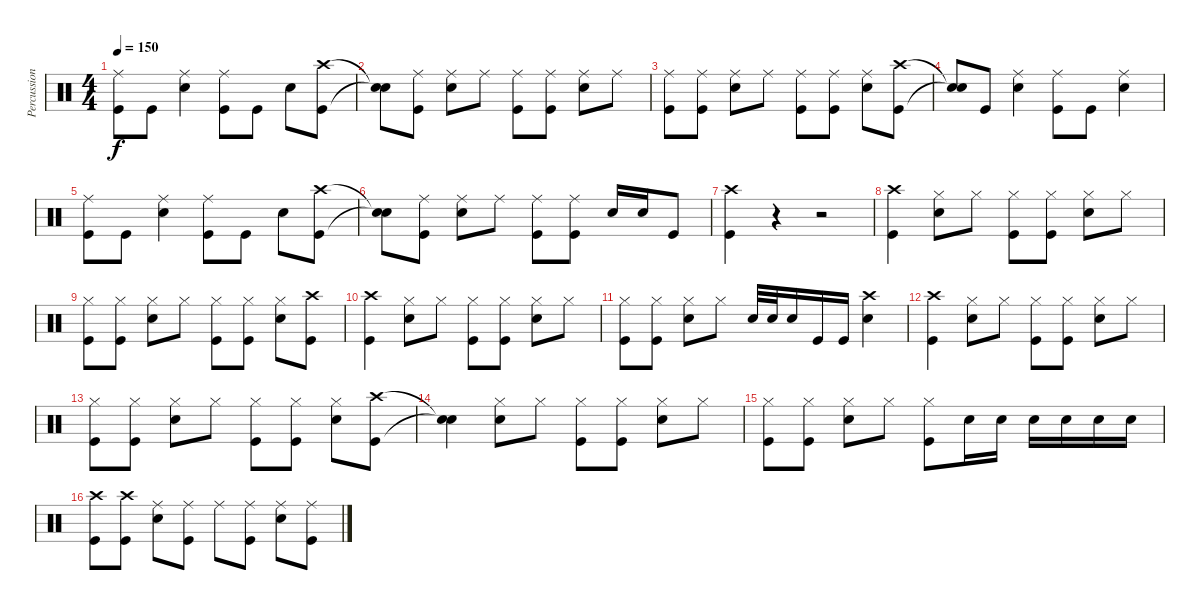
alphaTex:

\track ("Percussion" "Percussion") {instrument percussion}
\staff {score}
\articulation defaults
\ts (4 4)
\tempo 150
\clef neutral
\ks c
("Ride (middle)" "Kick (hit)").8{dy f} "Kick (hit)".8 ("Ride (middle)" "Electric Snare (hit)").4 ("Ride (middle)" "Kick (hit)").8 "Kick (hit)".8 "Electric Snare (hit)".8 ("Crash high (hit)" "Kick (hit)").8 |
("Snare (hit)"{t} "Snare (hit)"{t}).8 ("Ride (middle)" "Kick (hit)").8 ("Ride (middle)" "Electric Snare (hit)").8 "Ride (middle)".8 ("Ride (middle)" "Kick (hit)").8 ("Ride (middle)" "Kick (hit)").8 ("Ride (middle)" "Electric Snare (hit)").8 "Ride (middle)".8 |
("Ride (middle)" "Kick (hit)").8 ("Ride (middle)" "Kick (hit)").8 ("Ride (middle)" "Electric Snare (hit)").8 "Ride (middle)".8 ("Ride (middle)" "Kick (hit)").8 ("Ride (middle)" "Kick (hit)").8 ("Ride (middle)" "Electric Snare (hit)").8 ("Crash high (hit)" "Kick (hit)").8 |
("Snare (hit)"{t} "Snare (hit)"{t}).8 "Kick (hit)".8 ("Ride (middle)" "Electric Snare (hit)").4 ("Ride (middle)" "Kick (hit)").8 "Kick (hit)".8 ("Ride (middle)" "Electric Snare (hit)").4 |
("Ride (middle)" "Kick (hit)").8 "Kick (hit)".8 ("Ride (middle)" "Electric Snare (hit)").4 ("Ride (middle)" "Kick (hit)").8 "Kick (hit)".8 "Electric Snare (hit)".8 ("Crash high (hit)" "Kick (hit)").8 |
("Snare (hit)"{t} "Snare (hit)"{t}).8 ("Ride (middle)" "Kick (hit)").8 ("Ride (middle)" "Electric Snare (hit)").8 "Ride (middle)".8 ("Ride (middle)" "Kick (hit)").8 ("Ride (middle)" "Kick (hit)").8 "Electric Snare (hit)".16 "Electric Snare (hit)".16 "Kick (hit)".8 |
("Crash high (hit)" "Kick (hit)").4 r.4 r.2 |
("Crash high (hit)" "Kick (hit)").4 ("Hi-Hat (closed)" "Electric Snare (hit)").8 "Hi-Hat (closed)".8 ("Hi-Hat (closed)" "Kick (hit)").8 ("Hi-Hat (closed)" "Kick (hit)").8 ("Hi-Hat (closed)" "Electric Snare (hit)").8 "Hi-Hat (closed)".8 |
("Hi-Hat (closed)" "Kick (hit)").8 ("Hi-Hat (closed)" "Kick (hit)").8 ("Hi-Hat (closed)" "Electric Snare (hit)").8 "Hi-Hat (closed)".8 ("Hi-Hat (closed)" "Kick (hit)").8 ("Hi-Hat (closed)" "Kick (hit)").8 ("Hi-Hat (closed)" "Electric Snare (hit)").8 ("Crash high (hit)" "Kick (hit)").8 |
("Crash high (hit)" "Kick (hit)").4 ("Hi-Hat (closed)" "Electric Snare (hit)").8 "Hi-Hat (closed)".8 ("Hi-Hat (closed)" "Kick (hit)").8 ("Hi-Hat (closed)" "Kick (hit)").8 ("Hi-Hat (closed)" "Electric Snare (hit)").8 "Hi-Hat (closed)".8 |
("Hi-Hat (closed)" "Kick (hit)").8 ("Hi-Hat (closed)" "Kick (hit)").8 ("Hi-Hat (closed)" "Electric Snare (hit)").8 "Hi-Hat (closed)".8 "Electric Snare (hit)".32 "Electric Snare (hit)".32 "Electric Snare (hit)".16 "Kick (hit)".16 "Kick (hit)".16 ("Crash high (hit)" "Electric Snare (hit)").4 |
("Crash high (hit)" "Kick (hit)").4 ("Hi-Hat (closed)" "Electric Snare (hit)").8 "Hi-Hat (closed)".8 ("Hi-Hat (closed)" "Kick (hit)").8 ("Hi-Hat (closed)" "Kick (hit)").8 ("Hi-Hat (closed)" "Electric Snare (hit)").8 "Hi-Hat (closed)".8 |
("Hi-Hat (closed)" "Kick (hit)").8 ("Hi-Hat (closed)" "Kick (hit)").8 ("Hi-Hat (closed)" "Electric Snare (hit)").8 "Hi-Hat (closed)".8 ("Hi-Hat (closed)" "Kick (hit)").8 ("Hi-Hat (closed)" "Kick (hit)").8 ("Hi-Hat (closed)" "Electric Snare (hit)").8 ("Crash high (hit)" "Kick (hit)").8 |
("Snare (hit)"{t} "Snare (hit)"{t}).4 ("Hi-Hat (closed)" "Electric Snare (hit)").8 "Hi-Hat (closed)".8 ("Hi-Hat (closed)" "Kick (hit)").8 ("Hi-Hat (closed)" "Kick (hit)").8 ("Hi-Hat (closed)" "Electric Snare (hit)").8 "Hi-Hat (closed)".8 |
("Hi-Hat (closed)" "Kick (hit)").8 ("Hi-Hat (closed)" "Kick (hit)").8 ("Hi-Hat (closed)" "Electric Snare (hit)").8 "Hi-Hat (closed)".8 ("Hi-Hat (closed)" "Kick (hit)").8 "Electric Snare (hit)".16 "Electric Snare (hit)".16 "Electric Snare (hit)".16 "Electric Snare (hit)".16 "Electric Snare (hit)".16 "Electric Snare (hit)".16 |
("Crash high (hit)" "Kick (hit)").8 ("Crash high (hit)" "Kick (hit)").8 ("Ride (middle)" "Electric Snare (hit)").8 ("Ride (middle)" "Kick (hit)").8 "Ride (middle)".8 ("Ride (middle)" "Kick (hit)").8 ("Ride (middle)" "Electric Snare (hit)").8 ("Ride (middle)" "Kick (hit)").8
